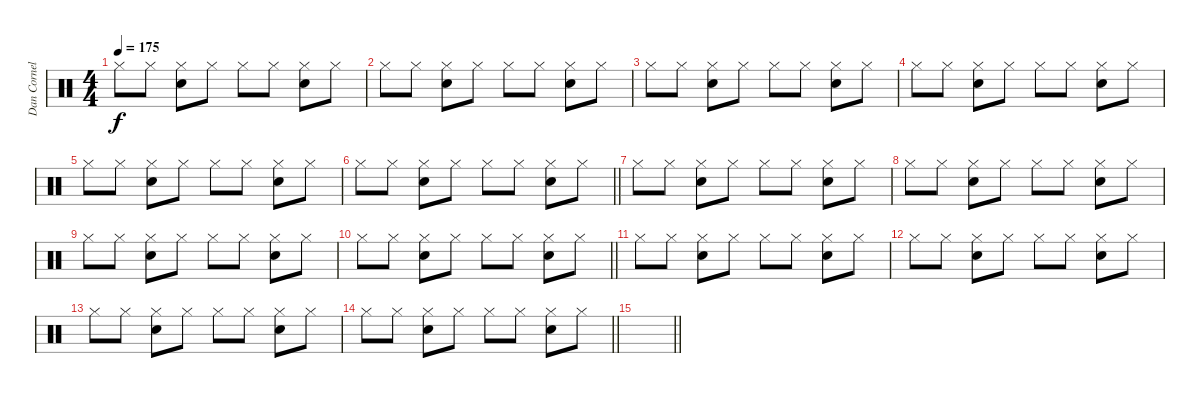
\track ("Dan Cornelius" "Dan Cornel") {instrument percussion}
\staff {score}
\articulation defaults
\ts (4 4)
\tempo 175
\clef neutral
\ks c "Hi-Hat (closed)".8{dy f} "Hi-Hat (closed)".8
("Hi-Hat (closed)" "Electric Snare (hit)").8 "Hi-Hat (closed)".8 "Hi-Hat (closed)".8 "Hi-Hat (closed)".8 ("Hi-Hat (closed)" "Electric Snare (hit)").8 "Hi-Hat (closed)".8 |
"Hi-Hat (closed)".8 "Hi-Hat (closed)".8 ("Hi-Hat (closed)" "Electric Snare (hit)").8 "Hi-Hat (closed)".8 "Hi-Hat (closed)".8 "Hi-Hat (closed)".8 ("Hi-Hat (closed)" "Electric Snare (hit)").8 "Hi-Hat (closed)".8 |
"Hi-Hat (closed)".8 "Hi-Hat (closed)".8 ("Hi-Hat (closed)" "Electric Snare (hit)").8 "Hi-Hat (closed)".8 "Hi-Hat (closed)".8 "Hi-Hat (closed)".8 ("Hi-Hat (closed)" "Electric Snare (hit)").8 "Hi-Hat (closed)".8 |
"Hi-Hat (closed)".8 "Hi-Hat (closed)".8 ("Hi-Hat (closed)" "Electric Snare (hit)").8 "Hi-Hat (closed)".8 "Hi-Hat (closed)".8 "Hi-Hat (closed)".8 ("Hi-Hat (closed)" "Electric Snare (hit)").8 "Hi-Hat (closed)".8 |
"Hi-Hat (closed)".8 "Hi-Hat (closed)".8 ("Hi-Hat (closed)" "Electric Snare (hit)").8 "Hi-Hat (closed)".8 "Hi-Hat (closed)".8 "Hi-Hat (closed)".8 ("Hi-Hat (closed)" "Electric Snare (hit)").8 "Hi-Hat (closed)".8 |
\barLineRight lightlight "Hi-Hat (closed)".8 "Hi-Hat (closed)".8
("Hi-Hat (closed)" "Electric Snare (hit)").8 "Hi-Hat (closed)".8 "Hi-Hat (closed)".8 "Hi-Hat (closed)".8 ("Hi-Hat (closed)" "Electric Snare (hit)").8 "Hi-Hat (closed)".8 |
"Hi-Hat (closed)".8 "Hi-Hat (closed)".8 ("Hi-Hat (closed)" "Electric Snare (hit)").8 "Hi-Hat (closed)".8 "Hi-Hat (closed)".8 "Hi-Hat (closed)".8 ("Hi-Hat (closed)" "Electric Snare (hit)").8 "Hi-Hat (closed)".8 |
"Hi-Hat (closed)".8 "Hi-Hat (closed)".8 ("Hi-Hat (closed)" "Electric Snare (hit)").8 "Hi-Hat (closed)".8 "Hi-Hat (closed)".8 "Hi-Hat (closed)".8 ("Hi-Hat (closed)" "Electric Snare (hit)").8 "Hi-Hat (closed)".8 |
"Hi-Hat (closed)".8 "Hi-Hat (closed)".8 ("Hi-Hat (closed)" "Electric Snare (hit)").8 "Hi-Hat (closed)".8 "Hi-Hat (closed)".8 "Hi-Hat (closed)".8 ("Hi-Hat (closed)" "Electric Snare (hit)").8 "Hi-Hat (closed)".8 |
\barLineRight lightlight "Hi-Hat (closed)".8 "Hi-Hat (closed)".8
("Hi-Hat (closed)" "Electric Snare (hit)").8 "Hi-Hat (closed)".8 "Hi-Hat (closed)".8 "Hi-Hat (closed)".8 ("Hi-Hat (closed)" "Electric Snare (hit)").8 "Hi-Hat (closed)".8 |
"Hi-Hat (closed)".8 "Hi-Hat (closed)".8 ("Hi-Hat (closed)" "Electric Snare (hit)").8 "Hi-Hat (closed)".8 "Hi-Hat (closed)".8 "Hi-Hat (closed)".8 ("Hi-Hat (closed)" "Electric Snare (hit)").8 "Hi-Hat (closed)".8 |
"Hi-Hat (closed)".8 "Hi-Hat (closed)".8 ("Hi-Hat (closed)" "Electric Snare (hit)").8 "Hi-Hat (closed)".8 "Hi-Hat (closed)".8 "Hi-Hat (closed)".8 ("Hi-Hat (closed)" "Electric Snare (hit)").8 "Hi-Hat (closed)".8 |
"Hi-Hat (closed)".8 "Hi-Hat (closed)".8 ("Hi-Hat (closed)" "Electric Snare (hit)").8 "Hi-Hat (closed)".8 "Hi-Hat (closed)".8 "Hi-Hat (closed)".8 ("Hi-Hat (closed)" "Electric Snare (hit)").8 "Hi-Hat (closed)".8 |
\barLineRight lightlight "Hi-Hat (closed)".8 "Hi-Hat (closed)".8
("Hi-Hat (closed)" "Electric Snare (hit)").8 "Hi-Hat (closed)".8 "Hi-Hat (closed)".8 "Hi-Hat (closed)".8 ("Hi-Hat (closed)" "Electric Snare (hit)").8 "Hi-Hat (closed)".8 |
\barLineRight lightlight
